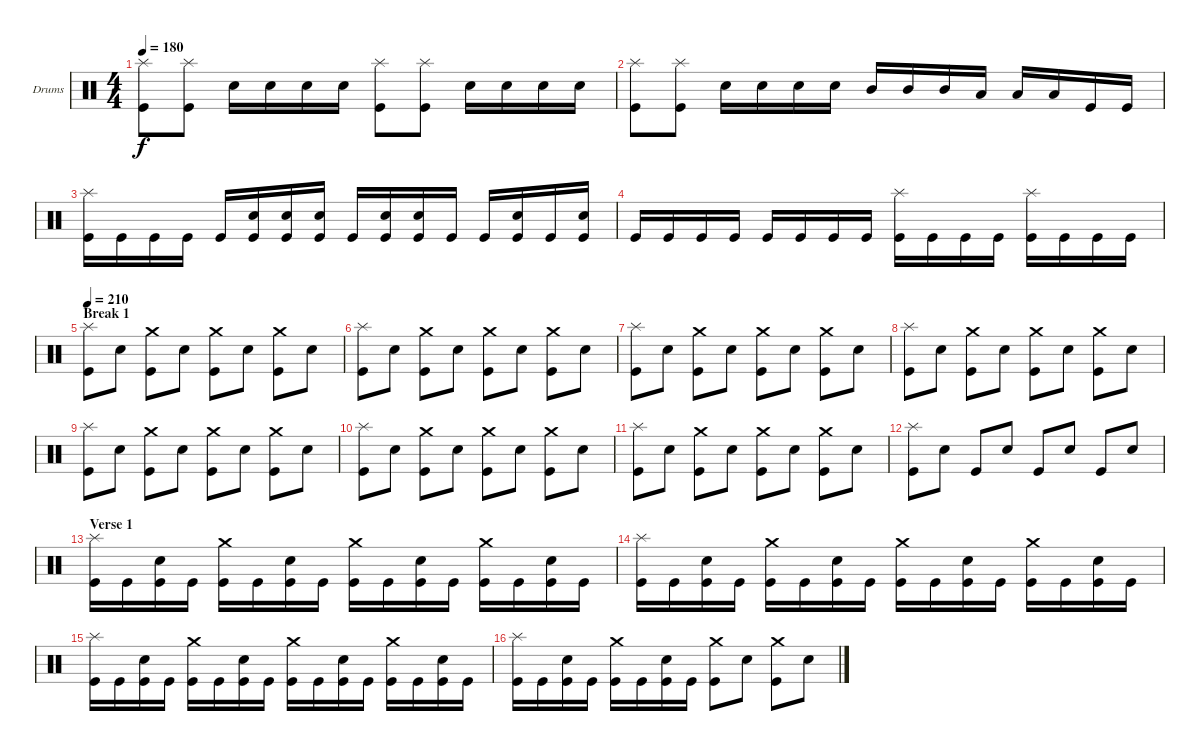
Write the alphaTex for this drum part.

\defaultSystemsLayout 4
\bracketExtendMode groupsimilarinstruments
\firstSystemTrackNameOrientation horizontal
\otherSystemsTrackNameOrientation horizontal
\track ("Ventor" "Drums") {instrument percussion}
\staff {score}
\articulation defaults
\ts (4 4)
\tempo 180
\clef neutral
\scale
0.5
\ks c
("Kick (hit)" "Splash (hit)").8{dy f} ("Kick (hit)" "Splash (hit)").8 "Snare (hit) 2".16 "Snare (hit) 2".16 "Snare (hit) 2".16 "Snare (hit) 2".16 ("Kick (hit)" "Splash (hit)").8 ("Kick (hit)" "Splash (hit)").8 "Snare (hit) 2".16 "Snare (hit) 2".16 "Snare (hit) 2".16 "Snare (hit) 2".16 |
\scale
0.5 ("Kick (hit)" "Splash (hit)").8 ("Kick (hit)" "Splash (hit)").8 "Snare (hit) 2".16 "Snare (hit) 2".16 "Snare (hit) 2".16 "Snare (hit) 2".16 "Mid Tom (hit)".16 "Mid Tom (hit)".16 "Mid Tom (hit)".16 "Low Tom (hit)".16 "Low Tom (hit)".16 "Low Tom (hit)".16 "Kick (hit)".16 "Kick (hit)".16 |
\scale
0.5 ("Kick (hit)" "Splash (hit)").16 "Kick (hit)".16 "Kick (hit)".16 "Kick (hit)".16 "Kick (hit)".16 ("Kick (hit)" "Snare (hit) 2").16 ("Kick (hit)" "Snare (hit) 2").16 ("Kick (hit)" "Snare (hit) 2").16 "Kick (hit)".16 ("Kick (hit)" "Snare (hit) 2").16 ("Kick (hit)" "Snare (hit) 2").16 "Kick (hit)".16 "Kick (hit)".16 ("Kick (hit)" "Snare (hit) 2").16 "Kick (hit)".16 ("Kick (hit)" "Snare (hit) 2").16 |
\scale
0.5 "Kick (hit)".16 "Kick (hit)".16 "Kick (hit)".16 "Kick (hit)".16 "Kick (hit)".16 "Kick (hit)".16 "Kick (hit)".16 "Kick (hit)".16 ("Kick (hit)" "Splash (hit)").16 "Kick (hit)".16 "Kick (hit)".16 "Kick (hit)".16 ("Kick (hit)" "Splash (hit)").16 "Kick (hit)".16 "Kick (hit)".16 "Kick (hit)".16 |
\section ("" "Break 1")
\tempo 210
\scale
0.5 ("Kick (hit)" "Splash (hit)").8 "Snare (hit) 2".8 ("Kick (hit)" "Crash medium (hit)").8 "Snare (hit) 2".8 ("Kick (hit)" "Crash medium (hit)").8 "Snare (hit) 2".8 ("Kick (hit)" "Crash medium (hit)").8 "Snare (hit) 2".8 |
\scale
0.5 ("Kick (hit)" "Splash (hit)").8 "Snare (hit) 2".8 ("Kick (hit)" "Crash medium (hit)").8 "Snare (hit) 2".8 ("Kick (hit)" "Crash medium (hit)").8 "Snare (hit) 2".8 ("Kick (hit)" "Crash medium (hit)").8 "Snare (hit) 2".8 |
\scale
0.5 ("Kick (hit)" "Splash (hit)").8 "Snare (hit) 2".8 ("Kick (hit)" "Crash medium (hit)").8 "Snare (hit) 2".8 ("Kick (hit)" "Crash medium (hit)").8 "Snare (hit) 2".8 ("Kick (hit)" "Crash medium (hit)").8 "Snare (hit) 2".8 |
\scale
0.5 ("Kick (hit)" "Splash (hit)").8 "Snare (hit) 2".8 ("Kick (hit)" "Crash medium (hit)").8 "Snare (hit) 2".8 ("Kick (hit)" "Crash medium (hit)").8 "Snare (hit) 2".8 ("Kick (hit)" "Crash medium (hit)").8 "Snare (hit) 2".8 |
\scale
0.5 ("Kick (hit)" "Splash (hit)").8 "Snare (hit) 2".8 ("Kick (hit)" "Crash medium (hit)").8 "Snare (hit) 2".8 ("Kick (hit)" "Crash medium (hit)").8 "Snare (hit) 2".8 ("Kick (hit)" "Crash medium (hit)").8 "Snare (hit) 2".8 |
\scale
0.5 ("Kick (hit)" "Splash (hit)").8 "Snare (hit) 2".8 ("Kick (hit)" "Crash medium (hit)").8 "Snare (hit) 2".8 ("Kick (hit)" "Crash medium (hit)").8 "Snare (hit) 2".8 ("Kick (hit)" "Crash medium (hit)").8 "Snare (hit) 2".8 |
\scale
0.5 ("Kick (hit)" "Splash (hit)").8 "Snare (hit) 2".8 ("Kick (hit)" "Crash medium (hit)").8 "Snare (hit) 2".8 ("Kick (hit)" "Crash medium (hit)").8 "Snare (hit) 2".8 ("Kick (hit)" "Crash medium (hit)").8 "Snare (hit) 2".8 |
\scale
0.5 ("Kick (hit)" "Splash (hit)").8 "Snare (hit) 2".8 "Kick (hit)".8 "Snare (hit) 2".8 "Kick (hit)".8 "Snare (hit) 2".8 "Kick (hit)".8 "Snare (hit) 2".8 |
\section ("" "Verse 1")
\scale
0.5 ("Kick (hit)" "Splash (hit)").16 "Kick (hit)".16 ("Snare (hit) 2" "Kick (hit)").16 "Kick (hit)".16 ("Kick (hit)" "Crash medium (hit)").16 "Kick (hit)".16 ("Snare (hit) 2" "Kick (hit)").16 "Kick (hit)".16 ("Kick (hit)" "Crash medium (hit)").16 "Kick (hit)".16 ("Snare (hit) 2" "Kick (hit)").16 "Kick (hit)".16 ("Kick (hit)" "Crash medium (hit)").16 "Kick (hit)".16 ("Snare (hit) 2" "Kick (hit)").16 "Kick (hit)".16 |
\scale
0.5 ("Kick (hit)" "Splash (hit)").16 "Kick (hit)".16 ("Snare (hit) 2" "Kick (hit)").16 "Kick (hit)".16 ("Kick (hit)" "Crash medium (hit)").16 "Kick (hit)".16 ("Snare (hit) 2" "Kick (hit)").16 "Kick (hit)".16 ("Kick (hit)" "Crash medium (hit)").16 "Kick (hit)".16 ("Snare (hit) 2" "Kick (hit)").16 "Kick (hit)".16 ("Kick (hit)" "Crash medium (hit)").16 "Kick (hit)".16 ("Snare (hit) 2" "Kick (hit)").16 "Kick (hit)".16 |
\scale
0.5 ("Kick (hit)" "Splash (hit)").16 "Kick (hit)".16 ("Snare (hit) 2" "Kick (hit)").16 "Kick (hit)".16 ("Kick (hit)" "Crash medium (hit)").16 "Kick (hit)".16 ("Snare (hit) 2" "Kick (hit)").16 "Kick (hit)".16 ("Kick (hit)" "Crash medium (hit)").16 "Kick (hit)".16 ("Snare (hit) 2" "Kick (hit)").16 "Kick (hit)".16 ("Kick (hit)" "Crash medium (hit)").16 "Kick (hit)".16 ("Snare (hit) 2" "Kick (hit)").16 "Kick (hit)".16 |
\scale
0.5 ("Kick (hit)" "Splash (hit)").16 "Kick (hit)".16 ("Snare (hit) 2" "Kick (hit)").16 "Kick (hit)".16 ("Kick (hit)" "Crash medium (hit)").16 "Kick (hit)".16 ("Snare (hit) 2" "Kick (hit)").16 "Kick (hit)".16 ("Kick (hit)" "Crash medium (hit)").8 "Snare (hit) 2".8 ("Kick (hit)" "Crash medium (hit)").8 "Snare (hit) 2".8
